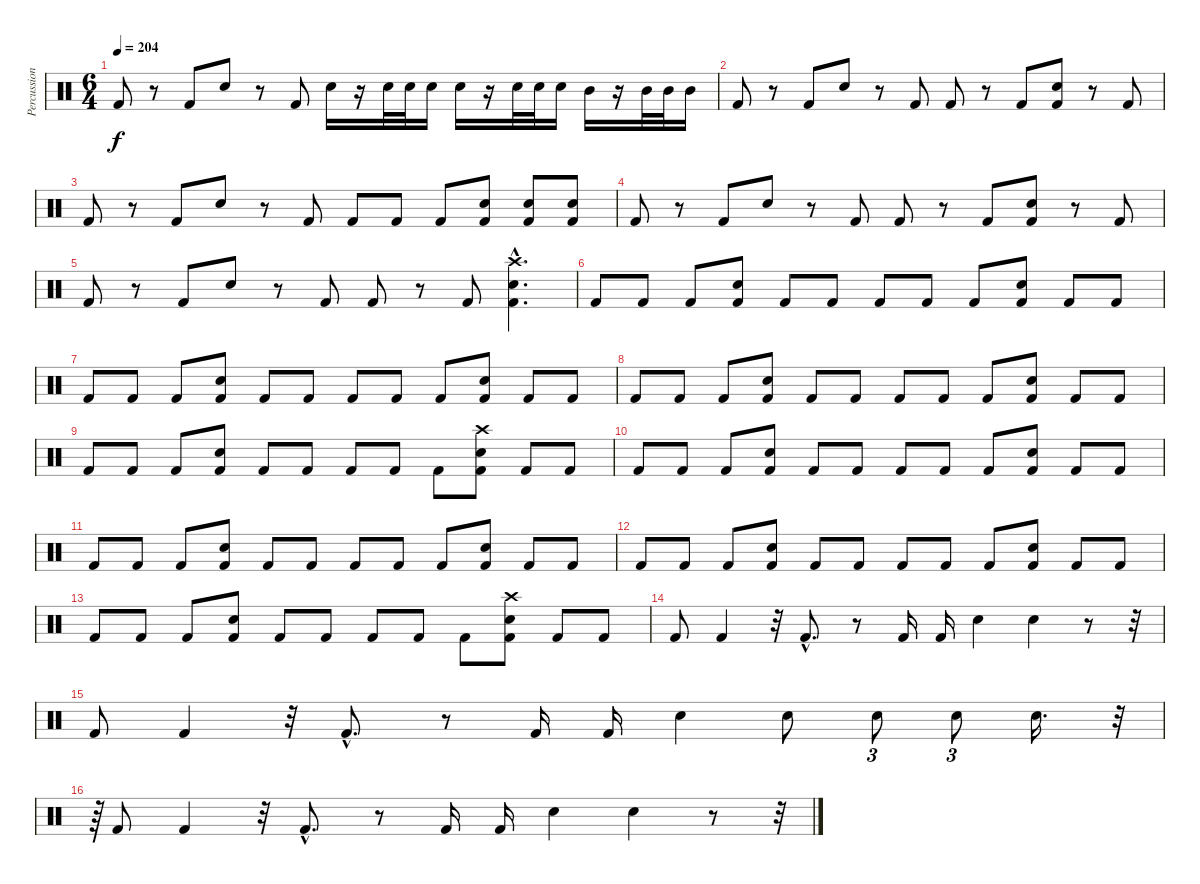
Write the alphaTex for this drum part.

\track ("Percussions" "Percussion") {instrument percussion}
\staff {score}
\articulation defaults
\ts (6 4)
\tempo 204
\clef neutral
\ks c "Kick (hit) 2".8{dy f}
r.8 "Kick (hit) 2".8 "Electric Snare (hit)".8 r.8 "Kick (hit) 2".8 "Electric Snare (hit)".16 r.16 "Electric Snare (hit)".32 "Electric Snare (hit)".32 "Electric Snare (hit)".16 "Snare (hit) 2".16 r.16 "Snare (hit) 2".32 "Snare (hit) 2".32 "Snare (hit) 2".16 "Mid Tom (hit)".16 r.16 "Mid Tom (hit)".32 "Mid Tom (hit)".32 "Mid Tom (hit)".16 |
"Kick (hit) 2".8 r.8 "Kick (hit) 2".8 "Electric Snare (hit)".8 r.8 "Kick (hit) 2".8 "Kick (hit) 2".8 r.8 "Kick (hit) 2".8 ("Electric Snare (hit)" "Kick (hit) 2").8 r.8 "Kick (hit) 2".8 |
"Kick (hit) 2".8 r.8 "Kick (hit) 2".8 "Electric Snare (hit)".8 r.8 "Kick (hit) 2".8 "Kick (hit) 2".8 "Kick (hit) 2".8 "Kick (hit) 2".8 ("Electric Snare (hit)" "Kick (hit) 2").8 ("Electric Snare (hit)" "Kick (hit) 2").8 ("Electric Snare (hit)" "Kick (hit) 2").8 |
"Kick (hit) 2".8 r.8 "Kick (hit) 2".8 "Electric Snare (hit)".8 r.8 "Kick (hit) 2".8 "Kick (hit) 2".8 r.8 "Kick (hit) 2".8 ("Electric Snare (hit)" "Kick (hit) 2").8 r.8 "Kick (hit) 2".8 |
"Kick (hit) 2".8 r.8 "Kick (hit) 2".8 "Electric Snare (hit)".8 r.8 "Kick (hit) 2".8 "Kick (hit) 2".8 r.8 "Kick (hit) 2".8 ("Crash high (hit)" "Electric Snare (hit)"{hac} "Kick (hit) 2").4{d} |
"Kick (hit) 2".8 "Kick (hit) 2".8 "Kick (hit) 2".8 ("Electric Snare (hit)" "Kick (hit) 2").8 "Kick (hit) 2".8 "Kick (hit) 2".8 "Kick (hit) 2".8 "Kick (hit) 2".8 "Kick (hit) 2".8 ("Electric Snare (hit)" "Kick (hit) 2").8 "Kick (hit) 2".8 "Kick (hit) 2".8 |
"Kick (hit) 2".8 "Kick (hit) 2".8 "Kick (hit) 2".8 ("Electric Snare (hit)" "Kick (hit) 2").8 "Kick (hit) 2".8 "Kick (hit) 2".8 "Kick (hit) 2".8 "Kick (hit) 2".8 "Kick (hit) 2".8 ("Electric Snare (hit)" "Kick (hit) 2").8 "Kick (hit) 2".8 "Kick (hit) 2".8 |
"Kick (hit) 2".8 "Kick (hit) 2".8 "Kick (hit) 2".8 ("Electric Snare (hit)" "Kick (hit) 2").8 "Kick (hit) 2".8 "Kick (hit) 2".8 "Kick (hit) 2".8 "Kick (hit) 2".8 "Kick (hit) 2".8 ("Electric Snare (hit)" "Kick (hit) 2").8 "Kick (hit) 2".8 "Kick (hit) 2".8 |
"Kick (hit) 2".8 "Kick (hit) 2".8 "Kick (hit) 2".8 ("Electric Snare (hit)" "Kick (hit) 2").8 "Kick (hit) 2".8 "Kick (hit) 2".8 "Kick (hit) 2".8 "Kick (hit) 2".8 "Kick (hit) 2".8 ("Crash high (hit)" "Electric Snare (hit)" "Kick (hit) 2").8 "Kick (hit) 2".8 "Kick (hit) 2".8 |
"Kick (hit) 2".8 "Kick (hit) 2".8 "Kick (hit) 2".8 ("Electric Snare (hit)" "Kick (hit) 2").8 "Kick (hit) 2".8 "Kick (hit) 2".8 "Kick (hit) 2".8 "Kick (hit) 2".8 "Kick (hit) 2".8 ("Electric Snare (hit)" "Kick (hit) 2").8 "Kick (hit) 2".8 "Kick (hit) 2".8 |
"Kick (hit) 2".8 "Kick (hit) 2".8 "Kick (hit) 2".8 ("Electric Snare (hit)" "Kick (hit) 2").8 "Kick (hit) 2".8 "Kick (hit) 2".8 "Kick (hit) 2".8 "Kick (hit) 2".8 "Kick (hit) 2".8 ("Electric Snare (hit)" "Kick (hit) 2").8 "Kick (hit) 2".8 "Kick (hit) 2".8 |
"Kick (hit) 2".8 "Kick (hit) 2".8 "Kick (hit) 2".8 ("Electric Snare (hit)" "Kick (hit) 2").8 "Kick (hit) 2".8 "Kick (hit) 2".8 "Kick (hit) 2".8 "Kick (hit) 2".8 "Kick (hit) 2".8 ("Electric Snare (hit)" "Kick (hit) 2").8 "Kick (hit) 2".8 "Kick (hit) 2".8 |
"Kick (hit) 2".8 "Kick (hit) 2".8 "Kick (hit) 2".8 ("Electric Snare (hit)" "Kick (hit) 2").8 "Kick (hit) 2".8 "Kick (hit) 2".8 "Kick (hit) 2".8 "Kick (hit) 2".8 "Kick (hit) 2".8 ("Crash high (hit)" "Electric Snare (hit)" "Kick (hit) 2").8 "Kick (hit) 2".8 "Kick (hit) 2".8 |
"Kick (hit) 2".8 "Kick (hit) 2".4 r.32 "Kick (hit) 2"{hac}.8{d} r.8 "Kick (hit) 2".16 "Kick (hit) 2".16 "Electric Snare (hit)".4 "Electric Snare (hit)".4 r.8 r.32 |
"Kick (hit) 2".8 "Kick (hit) 2".4 r.32 "Kick (hit) 2"{hac}.8{d} r.8 "Kick (hit) 2".16 "Kick (hit) 2".16 "Electric Snare (hit)".4 "Electric Snare (hit)".8 "Electric Snare (hit)".8{tu (3 2)} "Electric Snare (hit)".8{tu (3 2)} "Electric Snare (hit)".16{d} r.32{tu (3 2)} |
r.64{tu (3 2)} "Kick (hit) 2".8 "Kick (hit) 2".4 r.32 "Kick (hit) 2"{hac}.8{d} r.8 "Kick (hit) 2".16 "Kick (hit) 2".16 "Electric Snare (hit)".4 "Electric Snare (hit)".4 r.8 r.32{tu (3 2)}
